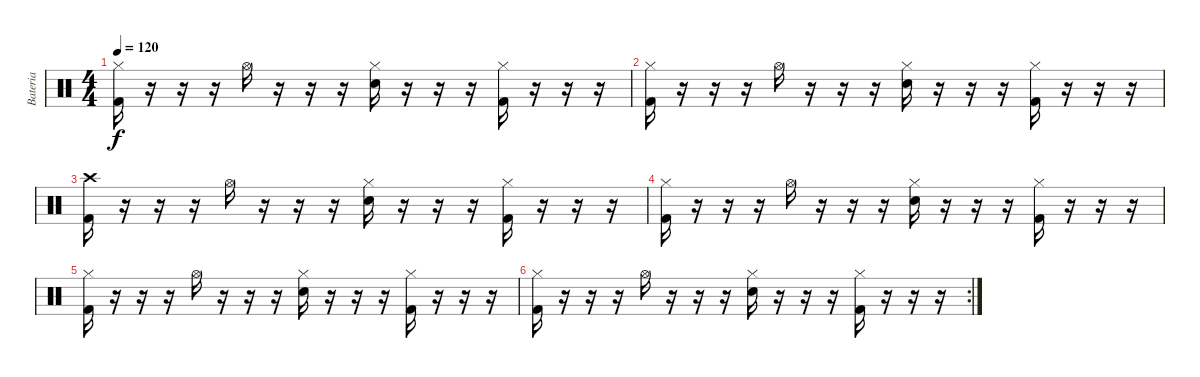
\track ("Bateria" "Bateria") {instrument percussion}
\staff {score}
\articulation defaults
\ts (4 4)
\tempo 120
\clef neutral
\ks c
("Hi-Hat (closed)" "Kick (hit) 2").16{dy f} r.16 r.16 r.16 "Hi-Hat (open)".16 r.16 r.16 r.16 ("Hi-Hat (closed)" "Electric Snare (hit)").16 r.16 r.16 r.16 ("Hi-Hat (closed)" "Kick (hit) 2").16 r.16 r.16 r.16 |
("Hi-Hat (closed)" "Kick (hit) 2").16 r.16 r.16 r.16 "Hi-Hat (open)".16 r.16 r.16 r.16 ("Hi-Hat (closed)" "Electric Snare (hit)").16 r.16 r.16 r.16 ("Hi-Hat (closed)" "Kick (hit) 2").16 r.16 r.16 r.16 |
("Crash high (hit)" "Kick (hit) 2").16 r.16 r.16 r.16 "Hi-Hat (open)".16 r.16 r.16 r.16 ("Hi-Hat (closed)" "Electric Snare (hit)").16 r.16 r.16 r.16 ("Hi-Hat (closed)" "Kick (hit) 2").16 r.16 r.16 r.16 |
("Hi-Hat (closed)" "Kick (hit) 2").16 r.16 r.16 r.16 "Hi-Hat (open)".16 r.16 r.16 r.16 ("Hi-Hat (closed)" "Electric Snare (hit)").16 r.16 r.16 r.16 ("Hi-Hat (closed)" "Kick (hit) 2").16 r.16 r.16 r.16 |
("Hi-Hat (closed)" "Kick (hit) 2").16 r.16 r.16 r.16 "Hi-Hat (open)".16 r.16 r.16 r.16 ("Hi-Hat (closed)" "Electric Snare (hit)").16 r.16 r.16 r.16 ("Hi-Hat (closed)" "Kick (hit) 2").16 r.16 r.16 r.16 |
\rc 2
("Hi-Hat (closed)" "Kick (hit) 2").16 r.16 r.16 r.16 "Hi-Hat (open)".16 r.16 r.16 r.16 ("Hi-Hat (closed)" "Electric Snare (hit)").16 r.16 r.16 r.16 ("Hi-Hat (closed)" "Kick (hit) 2").16 r.16 r.16 r.16
